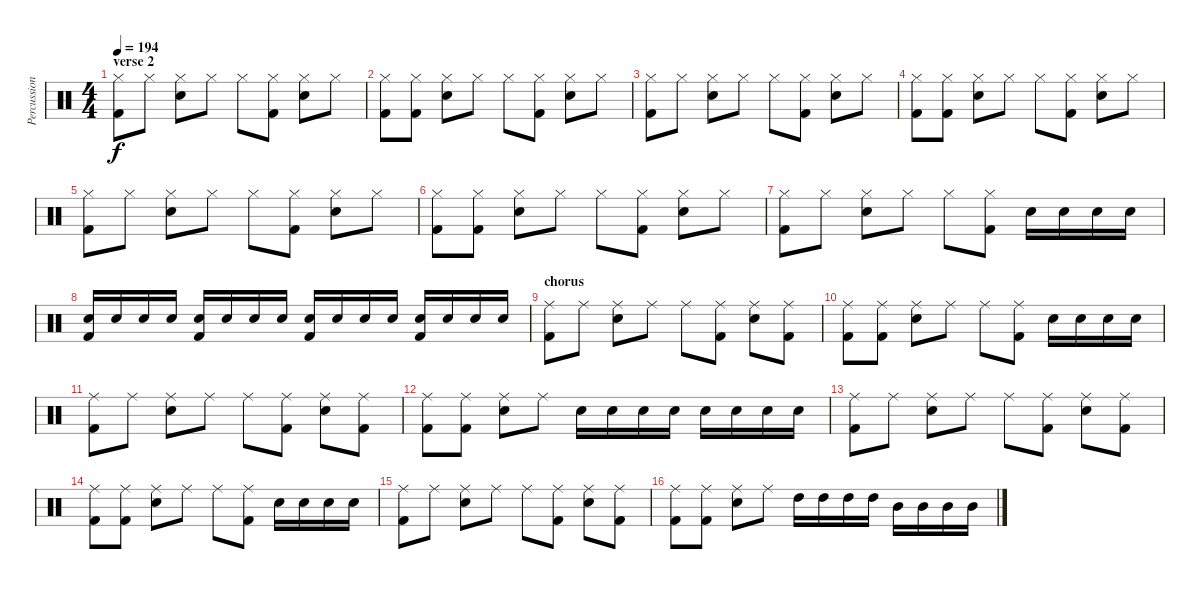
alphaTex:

\track ("Percussion" "Percussion") {instrument percussion}
\staff {score}
\articulation defaults
\ts (4 4)
\section ("" "verse 2")
\tempo 194
\clef neutral
\ks c
("Hi-Hat (closed)" "Kick (hit) 2").8{dy f} "Hi-Hat (closed)".8 ("Hi-Hat (closed)" "Snare (hit) 2").8 "Hi-Hat (closed)".8 "Hi-Hat (closed)".8 ("Hi-Hat (closed)" "Kick (hit) 2").8 ("Hi-Hat (closed)" "Snare (hit) 2").8 "Hi-Hat (closed)".8 |
("Hi-Hat (closed)" "Kick (hit) 2").8 ("Hi-Hat (closed)" "Kick (hit) 2").8 ("Hi-Hat (closed)" "Snare (hit) 2").8 "Hi-Hat (closed)".8 "Hi-Hat (closed)".8 ("Hi-Hat (closed)" "Kick (hit) 2").8 ("Hi-Hat (closed)" "Snare (hit) 2").8 "Hi-Hat (closed)".8 |
("Hi-Hat (closed)" "Kick (hit) 2").8 "Hi-Hat (closed)".8 ("Hi-Hat (closed)" "Snare (hit) 2").8 "Hi-Hat (closed)".8 "Hi-Hat (closed)".8 ("Hi-Hat (closed)" "Kick (hit) 2").8 ("Hi-Hat (closed)" "Snare (hit) 2").8 "Hi-Hat (closed)".8 |
("Hi-Hat (closed)" "Kick (hit) 2").8 ("Hi-Hat (closed)" "Kick (hit) 2").8 ("Hi-Hat (closed)" "Snare (hit) 2").8 "Hi-Hat (closed)".8 "Hi-Hat (closed)".8 ("Hi-Hat (closed)" "Kick (hit) 2").8 ("Hi-Hat (closed)" "Snare (hit) 2").8 "Hi-Hat (closed)".8 |
("Hi-Hat (closed)" "Kick (hit) 2").8 "Hi-Hat (closed)".8 ("Hi-Hat (closed)" "Snare (hit) 2").8 "Hi-Hat (closed)".8 "Hi-Hat (closed)".8 ("Hi-Hat (closed)" "Kick (hit) 2").8 ("Hi-Hat (closed)" "Snare (hit) 2").8 "Hi-Hat (closed)".8 |
("Hi-Hat (closed)" "Kick (hit) 2").8 ("Hi-Hat (closed)" "Kick (hit) 2").8 ("Hi-Hat (closed)" "Snare (hit) 2").8 "Hi-Hat (closed)".8 "Hi-Hat (closed)".8 ("Hi-Hat (closed)" "Kick (hit) 2").8 ("Hi-Hat (closed)" "Snare (hit) 2").8 "Hi-Hat (closed)".8 |
("Hi-Hat (closed)" "Kick (hit) 2").8 "Hi-Hat (closed)".8 ("Hi-Hat (closed)" "Snare (hit) 2").8 "Hi-Hat (closed)".8 "Hi-Hat (closed)".8 ("Hi-Hat (closed)" "Kick (hit) 2").8 "Snare (hit) 2".16 "Snare (hit) 2".16 "Snare (hit) 2".16 "Snare (hit) 2".16 |
("Snare (hit) 2" "Kick (hit) 2").16 "Snare (hit) 2".16 "Snare (hit) 2".16 "Snare (hit) 2".16 ("Snare (hit) 2" "Kick (hit) 2").16 "Snare (hit) 2".16 "Snare (hit) 2".16 "Snare (hit) 2".16 ("Snare (hit) 2" "Kick (hit) 2").16 "Snare (hit) 2".16 "Snare (hit) 2".16 "Snare (hit) 2".16 ("Snare (hit) 2" "Kick (hit) 2").16 "Snare (hit) 2".16 "Snare (hit) 2".16 "Snare (hit) 2".16 |
\section ("" "chorus")
("Ride (middle)" "Kick (hit) 2").8 "Ride (middle)".8 ("Ride (middle)" "Snare (hit) 2").8 "Ride (middle)".8 "Ride (middle)".8 ("Ride (middle)" "Kick (hit) 2").8 ("Ride (middle)" "Snare (hit) 2").8 ("Ride (middle)" "Kick (hit) 2").8 |
("Ride (middle)" "Kick (hit) 2").8 ("Ride (middle)" "Kick (hit) 2").8 ("Ride (middle)" "Snare (hit) 2").8 "Ride (middle)".8 "Ride (middle)".8 ("Ride (middle)" "Kick (hit) 2").8 "Snare (hit) 2".16 "Snare (hit) 2".16 "Snare (hit) 2".16 "Snare (hit) 2".16 |
("Ride (middle)" "Kick (hit) 2").8 "Ride (middle)".8 ("Ride (middle)" "Snare (hit) 2").8 "Ride (middle)".8 "Ride (middle)".8 ("Ride (middle)" "Kick (hit) 2").8 ("Ride (middle)" "Snare (hit) 2").8 ("Ride (middle)" "Kick (hit) 2").8 |
("Ride (middle)" "Kick (hit) 2").8 ("Ride (middle)" "Kick (hit) 2").8 ("Ride (middle)" "Snare (hit) 2").8 "Ride (middle)".8 "Snare (hit) 2".16 "Snare (hit) 2".16 "Snare (hit) 2".16 "Snare (hit) 2".16 "Snare (hit) 2".16 "Snare (hit) 2".16 "Snare (hit) 2".16 "Snare (hit) 2".16 |
("Ride (middle)" "Kick (hit) 2").8 "Ride (middle)".8 ("Ride (middle)" "Snare (hit) 2").8 "Ride (middle)".8 "Ride (middle)".8 ("Ride (middle)" "Kick (hit) 2").8 ("Ride (middle)" "Snare (hit) 2").8 ("Ride (middle)" "Kick (hit) 2").8 |
("Ride (middle)" "Kick (hit) 2").8 ("Ride (middle)" "Kick (hit) 2").8 ("Ride (middle)" "Snare (hit) 2").8 "Ride (middle)".8 "Ride (middle)".8 ("Ride (middle)" "Kick (hit) 2").8 "Snare (hit) 2".16 "Snare (hit) 2".16 "Snare (hit) 2".16 "Snare (hit) 2".16 |
("Ride (middle)" "Kick (hit) 2").8 "Ride (middle)".8 ("Ride (middle)" "Snare (hit) 2").8 "Ride (middle)".8 "Ride (middle)".8 ("Ride (middle)" "Kick (hit) 2").8 ("Ride (middle)" "Snare (hit) 2").8 ("Ride (middle)" "Kick (hit) 2").8 |
("Ride (middle)" "Kick (hit) 2").8 ("Ride (middle)" "Kick (hit) 2").8 ("Ride (middle)" "Snare (hit) 2").8 "Ride (middle)".8 "High Tom (hit)".16 "High Tom (hit)".16 "High Tom (hit)".16 "High Tom (hit)".16 "Mid Tom (hit)".16 "Mid Tom (hit)".16 "Mid Tom (hit)".16 "Mid Tom (hit)".16
